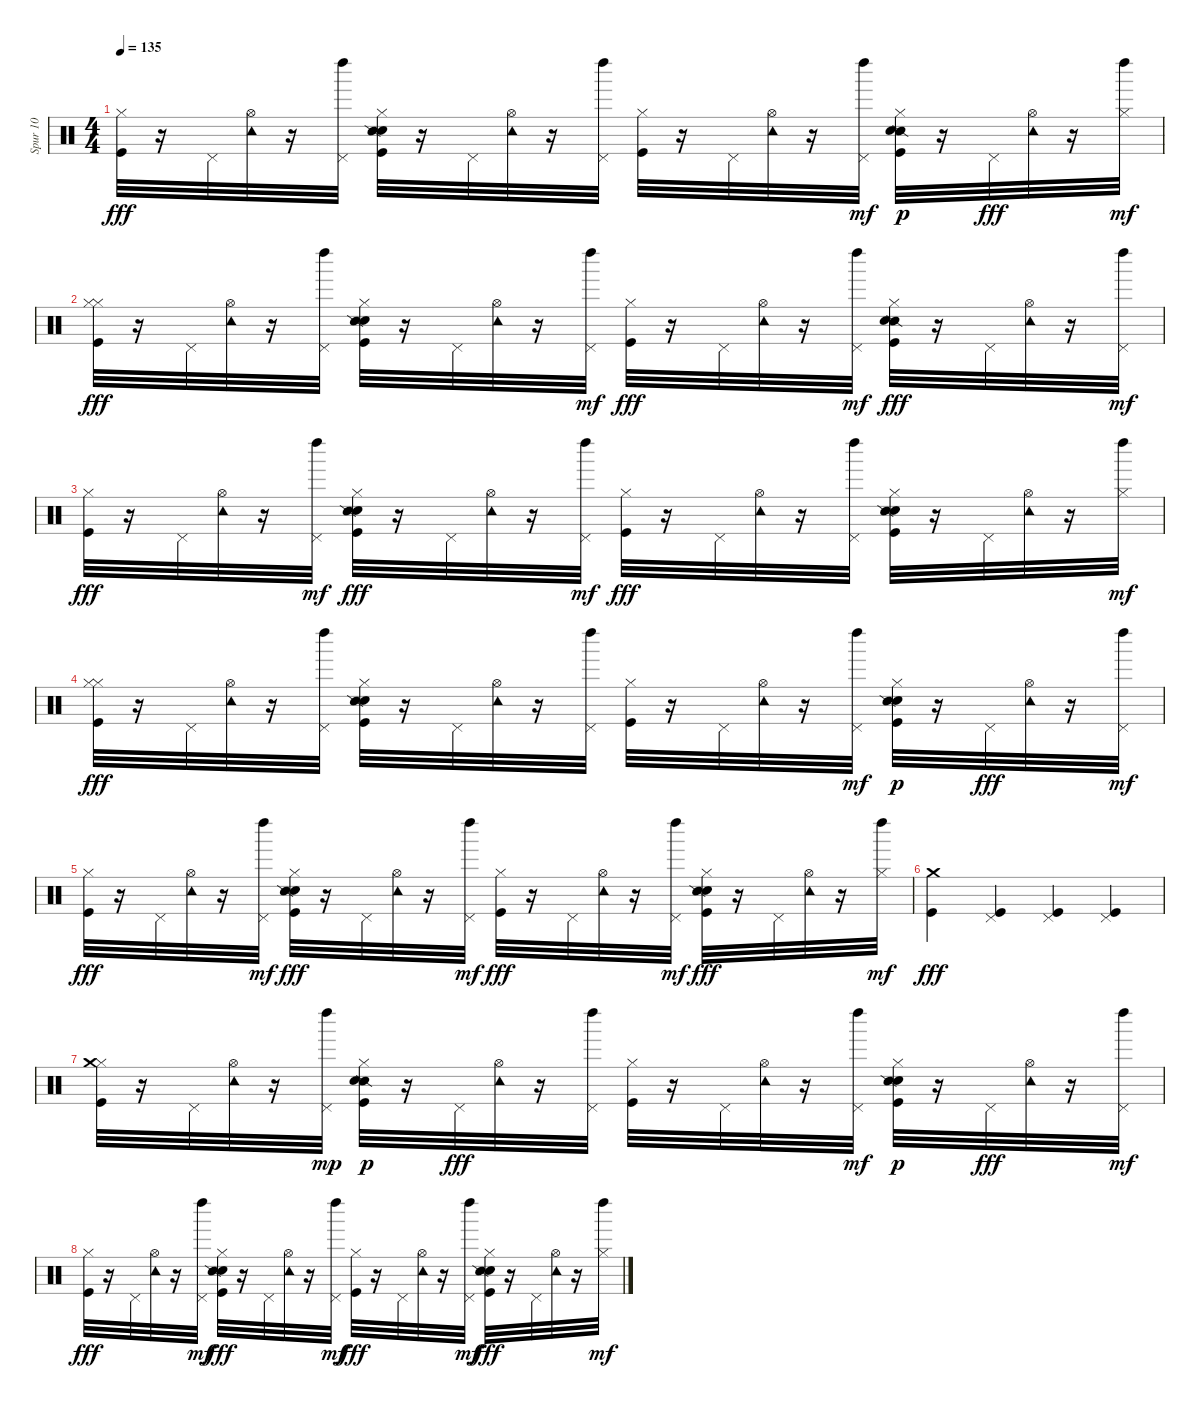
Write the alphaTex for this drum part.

\track ("Spur 10" "Spur 10") {instrument percussion}
\staff {score}
\articulation defaults
\ts (4 4)
\tempo 135
\clef neutral
\ks c
("Hi-Hat (closed)" "Kick (hit)").32{dy fff} r.16 "Pedal Hi-Hat (hit)".32 ("Hi-Hat (open)" "Tambourine (hit)").32 r.16 ("Left Maraca (hit)" "Pedal Hi-Hat (hit)").32 ("Kick (hit)" "Hand Clap (hit)" "Hi-Hat (closed)" "Snare (side stick) 2").32 r.16 "Pedal Hi-Hat (hit)".32 ("Tambourine (hit)" "Hi-Hat (open)").32 r.16 ("Left Maraca (hit)" "Pedal Hi-Hat (hit)").32 ("Kick (hit)" "Hi-Hat (closed)").32 r.16 "Pedal Hi-Hat (hit)".32 ("Hi-Hat (open)" "Tambourine (hit)").32 r.16 ("Pedal Hi-Hat (hit)" "Left Maraca (hit)").32{dy mf} ("Snare (side stick) 2" "Hi-Hat (closed)" "Kick (hit)" "Hand Clap (hit)").32{dy p} r.16 "Pedal Hi-Hat (hit)".32{dy fff} ("Tambourine (hit)" "Hi-Hat (open)").32 r.16 ("Left Maraca (hit)" "Hi-Hat (closed)").32{dy mf} |
("Hi-Hat (closed)" "Kick (hit)" "Hi-Hat (closed)").32{dy fff} r.16 "Pedal Hi-Hat (hit)".32 ("Tambourine (hit)" "Hi-Hat (open)").32 r.16 ("Left Maraca (hit)" "Pedal Hi-Hat (hit)").32 ("Hi-Hat (closed)" "Hand Clap (hit)" "Kick (hit)" "Snare (side stick) 2").32 r.16 "Pedal Hi-Hat (hit)".32 ("Tambourine (hit)" "Hi-Hat (open)").32 r.16 ("Pedal Hi-Hat (hit)" "Left Maraca (hit)").32{dy mf} ("Hi-Hat (closed)" "Kick (hit)").32{dy fff} r.16 "Pedal Hi-Hat (hit)".32 ("Tambourine (hit)" "Hi-Hat (open)").32 r.16 ("Left Maraca (hit)" "Pedal Hi-Hat (hit)").32{dy mf} ("Snare (side stick) 2" "Hi-Hat (closed)" "Hand Clap (hit)" "Kick (hit)").32{dy fff} r.16 "Pedal Hi-Hat (hit)".32 ("Hi-Hat (open)" "Tambourine (hit)").32 r.16 ("Left Maraca (hit)" "Pedal Hi-Hat (hit)").32{dy mf} |
("Hi-Hat (closed)" "Kick (hit)").32{dy fff} r.16 "Pedal Hi-Hat (hit)".32 ("Tambourine (hit)" "Hi-Hat (open)").32 r.16 ("Pedal Hi-Hat (hit)" "Left Maraca (hit)").32{dy mf} ("Hi-Hat (closed)" "Hand Clap (hit)" "Kick (hit)" "Snare (side stick) 2").32{dy fff} r.16 "Pedal Hi-Hat (hit)".32 ("Hi-Hat (open)" "Tambourine (hit)").32 r.16 ("Pedal Hi-Hat (hit)" "Left Maraca (hit)").32{dy mf} ("Kick (hit)" "Hi-Hat (closed)").32{dy fff} r.16 "Pedal Hi-Hat (hit)".32 ("Tambourine (hit)" "Hi-Hat (open)").32 r.16 ("Left Maraca (hit)" "Pedal Hi-Hat (hit)").32 ("Hand Clap (hit)" "Hi-Hat (closed)" "Kick (hit)" "Snare (side stick) 2").32 r.16 "Pedal Hi-Hat (hit)".32 ("Hi-Hat (open)" "Tambourine (hit)").32 r.16 ("Hi-Hat (closed)" "Left Maraca (hit)").32{dy mf} |
("Hi-Hat (closed)" "Hi-Hat (closed)" "Kick (hit)").32{dy fff} r.16 "Pedal Hi-Hat (hit)".32 ("Hi-Hat (open)" "Tambourine (hit)").32 r.16 ("Left Maraca (hit)" "Pedal Hi-Hat (hit)").32 ("Hand Clap (hit)" "Kick (hit)" "Hi-Hat (closed)" "Snare (side stick) 2").32 r.16 "Pedal Hi-Hat (hit)".32 ("Tambourine (hit)" "Hi-Hat (open)").32 r.16 ("Left Maraca (hit)" "Pedal Hi-Hat (hit)").32 ("Kick (hit)" "Hi-Hat (closed)").32 r.16 "Pedal Hi-Hat (hit)".32 ("Hi-Hat (open)" "Tambourine (hit)").32 r.16 ("Pedal Hi-Hat (hit)" "Left Maraca (hit)").32{dy mf} ("Hi-Hat (closed)" "Kick (hit)" "Hand Clap (hit)" "Snare (side stick) 2").32{dy p} r.16 "Pedal Hi-Hat (hit)".32{dy fff} ("Hi-Hat (open)" "Tambourine (hit)").32 r.16 ("Left Maraca (hit)" "Pedal Hi-Hat (hit)").32{dy mf} |
("Hi-Hat (closed)" "Kick (hit)").32{dy fff} r.16 "Pedal Hi-Hat (hit)".32 ("Tambourine (hit)" "Hi-Hat (open)").32 r.16 ("Pedal Hi-Hat (hit)" "Left Maraca (hit)").32{dy mf} ("Hand Clap (hit)" "Snare (side stick) 2" "Hi-Hat (closed)" "Kick (hit)").32{dy fff} r.16 "Pedal Hi-Hat (hit)".32 ("Tambourine (hit)" "Hi-Hat (open)").32 r.16 ("Pedal Hi-Hat (hit)" "Left Maraca (hit)").32{dy mf} ("Hi-Hat (closed)" "Kick (hit)").32{dy fff} r.16 "Pedal Hi-Hat (hit)".32 ("Tambourine (hit)" "Hi-Hat (open)").32 r.16 ("Pedal Hi-Hat (hit)" "Left Maraca (hit)").32{dy mf} ("Hi-Hat (closed)" "Hand Clap (hit)" "Snare (side stick) 2" "Kick (hit)").32{dy fff} r.16 "Pedal Hi-Hat (hit)".32 ("Tambourine (hit)" "Hi-Hat (open)").32 r.16 ("Hi-Hat (closed)" "Left Maraca (hit)").32{dy mf} |
("Crash medium (hit)" "Kick (hit)").4{dy fff} ("Kick (hit)" "Pedal Hi-Hat (hit)").4 ("Pedal Hi-Hat (hit)" "Kick (hit)").4 ("Pedal Hi-Hat (hit)" "Kick (hit)").4 |
("Hi-Hat (closed)" "Kick (hit)" "Crash medium (hit)").32 r.16 "Pedal Hi-Hat (hit)".32 ("Tambourine (hit)" "Hi-Hat (open)").32 r.16 ("Pedal Hi-Hat (hit)" "Left Maraca (hit)").32{dy mp} ("Kick (hit)" "Hi-Hat (closed)" "Snare (side stick) 2" "Hand Clap (hit)").32{dy p} r.16 "Pedal Hi-Hat (hit)".32{dy fff} ("Hi-Hat (open)" "Tambourine (hit)").32 r.16 ("Left Maraca (hit)" "Pedal Hi-Hat (hit)").32 ("Hi-Hat (closed)" "Kick (hit)").32 r.16 "Pedal Hi-Hat (hit)".32 ("Tambourine (hit)" "Hi-Hat (open)").32 r.16 ("Left Maraca (hit)" "Pedal Hi-Hat (hit)").32{dy mf} ("Hi-Hat (closed)" "Kick (hit)" "Hand Clap (hit)" "Snare (side stick) 2").32{dy p} r.16 "Pedal Hi-Hat (hit)".32{dy fff} ("Hi-Hat (open)" "Tambourine (hit)").32 r.16 ("Left Maraca (hit)" "Pedal Hi-Hat (hit)").32{dy mf} |
("Hi-Hat (closed)" "Kick (hit)").32{dy fff} r.16 "Pedal Hi-Hat (hit)".32 ("Hi-Hat (open)" "Tambourine (hit)").32 r.16 ("Pedal Hi-Hat (hit)" "Left Maraca (hit)").32{dy mf} ("Hand Clap (hit)" "Snare (side stick) 2" "Hi-Hat (closed)" "Kick (hit)").32{dy fff} r.16 "Pedal Hi-Hat (hit)".32 ("Hi-Hat (open)" "Tambourine (hit)").32 r.16 ("Pedal Hi-Hat (hit)" "Left Maraca (hit)").32{dy mf} ("Hi-Hat (closed)" "Kick (hit)").32{dy fff} r.16 "Pedal Hi-Hat (hit)".32 ("Hi-Hat (open)" "Tambourine (hit)").32 r.16 ("Pedal Hi-Hat (hit)" "Left Maraca (hit)").32{dy mf} ("Kick (hit)" "Hand Clap (hit)" "Snare (side stick) 2" "Hi-Hat (closed)").32{dy fff} r.16 "Pedal Hi-Hat (hit)".32 ("Tambourine (hit)" "Hi-Hat (open)").32 r.16 ("Hi-Hat (closed)" "Left Maraca (hit)").32{dy mf}
